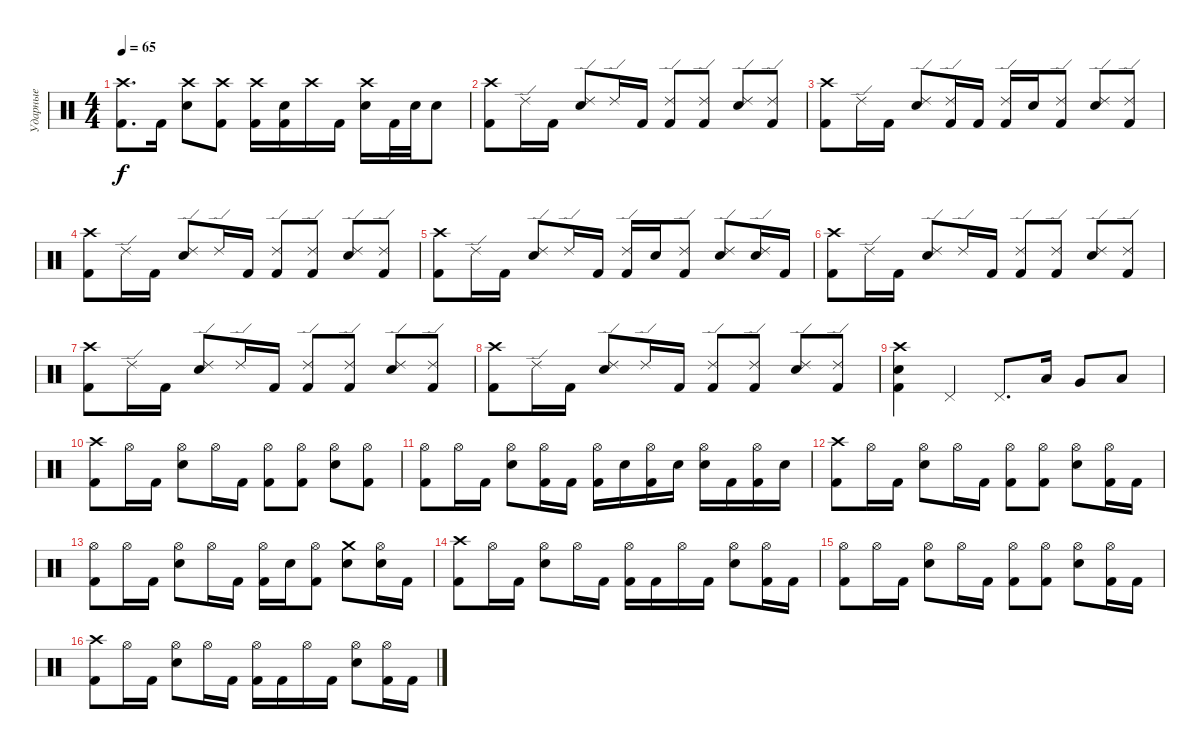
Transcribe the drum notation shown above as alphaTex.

\track ("Ударные" "Ударные") {instrument percussion}
\staff {score}
\articulation defaults
\ts (4 4)
\tempo 65
\clef neutral
\ks c
("Crash high (hit)" "Kick (hit) 2").8{d dy f} "Kick (hit) 2".16 ("Crash high (hit)" "Electric Snare (hit)").8 ("Crash high (hit)" "Kick (hit) 2").8 ("Crash high (hit)" "Kick (hit) 2").16 ("Electric Snare (hit)" "Kick (hit) 2").16 "Crash high (hit)".16 "Kick (hit) 2".16 ("Crash high (hit)" "Electric Snare (hit)").16 "Kick (hit) 2".32 "Electric Snare (hit)".32 "Electric Snare (hit)".8 |
("Crash high (hit)" "Kick (hit) 2").8 "Ride (edge) 2".16 "Kick (hit) 2".16 ("Ride (edge) 2" "Electric Snare (hit)").8 "Ride (edge) 2".16 "Kick (hit) 2".16 ("Ride (edge) 2" "Kick (hit) 2").8 ("Ride (edge) 2" "Kick (hit) 2").8 ("Ride (edge) 2" "Electric Snare (hit)").8 ("Ride (edge) 2" "Kick (hit) 2").8 |
("Crash high (hit)" "Kick (hit) 2").8 "Ride (edge) 2".16 "Kick (hit) 2".16 ("Ride (edge) 2" "Electric Snare (hit)").8 ("Ride (edge) 2" "Kick (hit) 2").16 "Kick (hit) 2".16 ("Ride (edge) 2" "Kick (hit) 2").16 "Electric Snare (hit)".16 ("Ride (edge) 2" "Kick (hit) 2").8 ("Ride (edge) 2" "Electric Snare (hit)").8 ("Ride (edge) 2" "Kick (hit) 2").8 |
("Crash high (hit)" "Kick (hit) 2").8 "Ride (edge) 2".16 "Kick (hit) 2".16 ("Ride (edge) 2" "Electric Snare (hit)").8 "Ride (edge) 2".16 "Kick (hit) 2".16 ("Ride (edge) 2" "Kick (hit) 2").8 ("Ride (edge) 2" "Kick (hit) 2").8 ("Ride (edge) 2" "Electric Snare (hit)").8 ("Ride (edge) 2" "Kick (hit) 2").8 |
("Crash high (hit)" "Kick (hit) 2").8 "Ride (edge) 2".16 "Kick (hit) 2".16 ("Ride (edge) 2" "Electric Snare (hit)").8 "Ride (edge) 2".16 "Kick (hit) 2".16 ("Ride (edge) 2" "Kick (hit) 2").16 "Electric Snare (hit)".16 ("Ride (edge) 2" "Kick (hit) 2").8 ("Ride (edge) 2" "Electric Snare (hit)").8 ("Ride (edge) 2" "Electric Snare (hit)").16 "Kick (hit) 2".16 |
("Crash high (hit)" "Kick (hit) 2").8 "Ride (edge) 2".16 "Kick (hit) 2".16 ("Ride (edge) 2" "Electric Snare (hit)").8 "Ride (edge) 2".16 "Kick (hit) 2".16 ("Ride (edge) 2" "Kick (hit) 2").8 ("Ride (edge) 2" "Kick (hit) 2").8 ("Ride (edge) 2" "Electric Snare (hit)").8 ("Ride (edge) 2" "Kick (hit) 2").8 |
("Crash high (hit)" "Kick (hit) 2").8 "Ride (edge) 2".16 "Kick (hit) 2".16 ("Ride (edge) 2" "Electric Snare (hit)").8 "Ride (edge) 2".16 "Kick (hit) 2".16 ("Ride (edge) 2" "Kick (hit) 2").8 ("Ride (edge) 2" "Kick (hit) 2").8 ("Ride (edge) 2" "Electric Snare (hit)").8 ("Ride (edge) 2" "Kick (hit) 2").8 |
("Crash high (hit)" "Kick (hit) 2").8 "Ride (edge) 2".16 "Kick (hit) 2".16 ("Ride (edge) 2" "Electric Snare (hit)").8 "Ride (edge) 2".16 "Kick (hit) 2".16 ("Ride (edge) 2" "Kick (hit) 2").8 ("Ride (edge) 2" "Kick (hit) 2").8 ("Ride (edge) 2" "Electric Snare (hit)").8 ("Ride (edge) 2" "Kick (hit) 2").8 |
("Crash high (hit)" "Electric Snare (hit)" "Kick (hit) 2").4 "Pedal Hi-Hat (hit)".4 "Pedal Hi-Hat (hit)".8{d} "Low Tom (hit)".16 "Very Low Tom (hit)".8 "Low Floor Tom (hit)".8 |
("Crash high (hit)" "Kick (hit) 2").8 "Hi-Hat (open)".16 "Kick (hit) 2".16 ("Hi-Hat (open)" "Electric Snare (hit)").8 "Hi-Hat (open)".16 "Kick (hit) 2".16 ("Hi-Hat (open)" "Kick (hit) 2").8 ("Hi-Hat (open)" "Kick (hit) 2").8 ("Hi-Hat (open)" "Electric Snare (hit)").8 ("Hi-Hat (open)" "Kick (hit) 2").8 |
("Hi-Hat (open)" "Kick (hit) 2").8 "Hi-Hat (open)".16 "Kick (hit) 2".16 ("Hi-Hat (open)" "Electric Snare (hit)").8 ("Hi-Hat (open)" "Kick (hit) 2").16 "Kick (hit) 2".16 ("Hi-Hat (open)" "Kick (hit) 2").16 "Electric Snare (hit)".16 ("Hi-Hat (open)" "Kick (hit) 2").16 "Electric Snare (hit)".16 ("Hi-Hat (open)" "Electric Snare (hit)").16 "Kick (hit) 2".16 ("Hi-Hat (open)" "Kick (hit) 2").16 "Electric Snare (hit)".16 |
("Crash high (hit)" "Kick (hit) 2").8 "Hi-Hat (open)".16 "Kick (hit) 2".16 ("Hi-Hat (open)" "Electric Snare (hit)").8 "Hi-Hat (open)".16 "Kick (hit) 2".16 ("Hi-Hat (open)" "Kick (hit) 2").8 ("Hi-Hat (open)" "Kick (hit) 2").8 ("Hi-Hat (open)" "Electric Snare (hit)").8 ("Hi-Hat (open)" "Kick (hit) 2").16 "Kick (hit) 2".16 |
("Hi-Hat (open)" "Kick (hit) 2").8 "Hi-Hat (open)".16 "Kick (hit) 2".16 ("Hi-Hat (open)" "Electric Snare (hit)").8 "Hi-Hat (open)".16 "Kick (hit) 2".16 ("Hi-Hat (open)" "Kick (hit) 2").16 "Electric Snare (hit)".16 ("Hi-Hat (open)" "Kick (hit) 2").8 ("Crash medium (hit)" "Electric Snare (hit)").8 ("Hi-Hat (open)" "Electric Snare (hit)").16 "Kick (hit) 2".16 |
("Crash high (hit)" "Kick (hit) 2").8 "Hi-Hat (open)".16 "Kick (hit) 2".16 ("Hi-Hat (open)" "Electric Snare (hit)").8 "Hi-Hat (open)".16 "Kick (hit) 2".16 ("Hi-Hat (open)" "Kick (hit) 2").16 "Kick (hit) 2".16 "Hi-Hat (open)".16 "Kick (hit) 2".16 ("Hi-Hat (open)" "Electric Snare (hit)").8 ("Hi-Hat (open)" "Kick (hit) 2").16 "Kick (hit) 2".16 |
("Hi-Hat (open)" "Kick (hit) 2").8 "Hi-Hat (open)".16 "Kick (hit) 2".16 ("Hi-Hat (open)" "Electric Snare (hit)").8 "Hi-Hat (open)".16 "Kick (hit) 2".16 ("Hi-Hat (open)" "Kick (hit) 2").8 ("Hi-Hat (open)" "Kick (hit) 2").8 ("Hi-Hat (open)" "Electric Snare (hit)").8 ("Hi-Hat (open)" "Kick (hit) 2").16 "Kick (hit) 2".16 |
("Crash high (hit)" "Kick (hit) 2").8 "Hi-Hat (open)".16 "Kick (hit) 2".16 ("Hi-Hat (open)" "Electric Snare (hit)").8 "Hi-Hat (open)".16 "Kick (hit) 2".16 ("Hi-Hat (open)" "Kick (hit) 2").16 "Kick (hit) 2".16 "Hi-Hat (open)".16 "Kick (hit) 2".16 ("Hi-Hat (open)" "Electric Snare (hit)").8 ("Hi-Hat (open)" "Kick (hit) 2").16 "Kick (hit) 2".16
